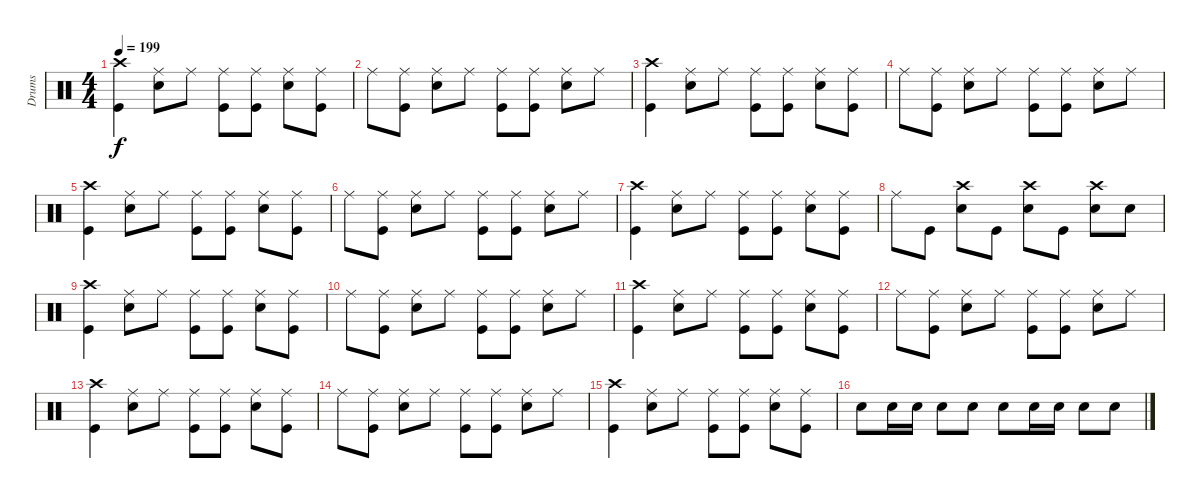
\track ("Drums" "Drums") {instrument percussion}
\staff {score}
\articulation defaults
\ts (4 4)
\tempo 199
\clef neutral
\ks c
("Kick (hit)" "Crash high (hit)").4{dy f} ("Ride (middle)" "Snare (hit) 2").8 "Ride (middle)".8 ("Ride (middle)" "Kick (hit)").8 ("Ride (middle)" "Kick (hit)").8 ("Ride (middle)" "Snare (hit) 2").8 ("Ride (middle)" "Kick (hit)").8 |
"Ride (middle)".8 ("Kick (hit)" "Ride (middle)").8 ("Ride (middle)" "Snare (hit) 2").8 "Ride (middle)".8 ("Ride (middle)" "Kick (hit)").8 ("Kick (hit)" "Ride (middle)").8 ("Ride (middle)" "Snare (hit) 2").8 "Ride (middle)".8 |
("Kick (hit)" "Crash high (hit)").4 ("Ride (middle)" "Snare (hit) 2").8 "Ride (middle)".8 ("Ride (middle)" "Kick (hit)").8 ("Ride (middle)" "Kick (hit)").8 ("Ride (middle)" "Snare (hit) 2").8 ("Ride (middle)" "Kick (hit)").8 |
"Ride (middle)".8 ("Kick (hit)" "Ride (middle)").8 ("Ride (middle)" "Snare (hit) 2").8 "Ride (middle)".8 ("Ride (middle)" "Kick (hit)").8 ("Kick (hit)" "Ride (middle)").8 ("Ride (middle)" "Snare (hit) 2").8 "Ride (middle)".8 |
("Kick (hit)" "Crash high (hit)").4 ("Ride (middle)" "Snare (hit) 2").8 "Ride (middle)".8 ("Ride (middle)" "Kick (hit)").8 ("Ride (middle)" "Kick (hit)").8 ("Ride (middle)" "Snare (hit) 2").8 ("Ride (middle)" "Kick (hit)").8 |
"Ride (middle)".8 ("Kick (hit)" "Ride (middle)").8 ("Ride (middle)" "Snare (hit) 2").8 "Ride (middle)".8 ("Ride (middle)" "Kick (hit)").8 ("Kick (hit)" "Ride (middle)").8 ("Ride (middle)" "Snare (hit) 2").8 "Ride (middle)".8 |
("Kick (hit)" "Crash high (hit)").4 ("Ride (middle)" "Snare (hit) 2").8 "Ride (middle)".8 ("Ride (middle)" "Kick (hit)").8 ("Ride (middle)" "Kick (hit)").8 ("Ride (middle)" "Snare (hit) 2").8 ("Ride (middle)" "Kick (hit)").8 |
"Ride (middle)".8 "Kick (hit)".8 ("Crash high (hit)" "Snare (hit) 2").8 "Kick (hit)".8 ("Crash high (hit)" "Snare (hit) 2").8 "Kick (hit)".8 ("Crash high (hit)" "Snare (hit) 2").8 "Snare (hit) 2".8 |
("Kick (hit)" "Crash high (hit)").4 ("Ride (middle)" "Snare (hit) 2").8 "Ride (middle)".8 ("Ride (middle)" "Kick (hit)").8 ("Ride (middle)" "Kick (hit)").8 ("Ride (middle)" "Snare (hit) 2").8 ("Ride (middle)" "Kick (hit)").8 |
"Ride (middle)".8 ("Kick (hit)" "Ride (middle)").8 ("Ride (middle)" "Snare (hit) 2").8 "Ride (middle)".8 ("Ride (middle)" "Kick (hit)").8 ("Kick (hit)" "Ride (middle)").8 ("Ride (middle)" "Snare (hit) 2").8 "Ride (middle)".8 |
("Kick (hit)" "Crash high (hit)").4 ("Ride (middle)" "Snare (hit) 2").8 "Ride (middle)".8 ("Ride (middle)" "Kick (hit)").8 ("Ride (middle)" "Kick (hit)").8 ("Ride (middle)" "Snare (hit) 2").8 ("Ride (middle)" "Kick (hit)").8 |
"Ride (middle)".8 ("Kick (hit)" "Ride (middle)").8 ("Ride (middle)" "Snare (hit) 2").8 "Ride (middle)".8 ("Ride (middle)" "Kick (hit)").8 ("Kick (hit)" "Ride (middle)").8 ("Ride (middle)" "Snare (hit) 2").8 "Ride (middle)".8 |
("Kick (hit)" "Crash high (hit)").4 ("Ride (middle)" "Snare (hit) 2").8 "Ride (middle)".8 ("Ride (middle)" "Kick (hit)").8 ("Ride (middle)" "Kick (hit)").8 ("Ride (middle)" "Snare (hit) 2").8 ("Ride (middle)" "Kick (hit)").8 |
"Ride (middle)".8 ("Kick (hit)" "Ride (middle)").8 ("Ride (middle)" "Snare (hit) 2").8 "Ride (middle)".8 ("Ride (middle)" "Kick (hit)").8 ("Kick (hit)" "Ride (middle)").8 ("Ride (middle)" "Snare (hit) 2").8 "Ride (middle)".8 |
("Kick (hit)" "Crash high (hit)").4 ("Ride (middle)" "Snare (hit) 2").8 "Ride (middle)".8 ("Ride (middle)" "Kick (hit)").8 ("Ride (middle)" "Kick (hit)").8 ("Ride (middle)" "Snare (hit) 2").8 ("Ride (middle)" "Kick (hit)").8 |
"Snare (hit) 2".8 "Snare (hit) 2".16 "Snare (hit) 2".16 "Snare (hit) 2".8 "Snare (hit) 2".8 "Snare (hit) 2".8 "Snare (hit) 2".16 "Snare (hit) 2".16 "Snare (hit) 2".8 "Snare (hit) 2".8
